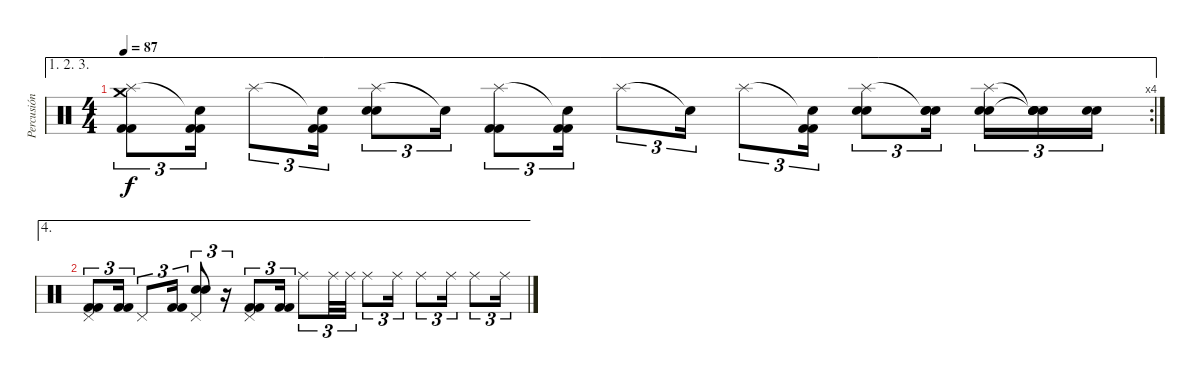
\track ("Percusión" "Percusión") {instrument percussion}
\staff {score}
\articulation defaults
\ae (1 2 3)
\rc 4
\ts (4 4)
\tempo 87
\clef neutral
\ks c
("Splash (hit)" "Crash medium (hit)" "Kick (hit) 2" "Kick (hit) 2").8{tu (3 2) dy f} ("Snare (hit)"{t} "Kick (hit) 2" "Kick (hit) 2").16{tu (3 2)} "Splash (hit)".8{tu (3 2)} ("Snare (hit)"{t} "Kick (hit) 2" "Kick (hit) 2").16{tu (3 2)} ("Splash (hit)" "Electric Snare (hit)" "Electric Snare (hit)").8{tu (3 2)} "Snare (hit)"{t}.16{tu (3 2)} ("Splash (hit)" "Kick (hit) 2" "Kick (hit) 2").8{tu (3 2)} ("Snare (hit)"{t} "Kick (hit) 2" "Kick (hit) 2").16{tu (3 2)} "Splash (hit)".8{tu (3 2)} "Snare (hit)"{t}.16{tu (3 2)} "Splash (hit)".8{tu (3 2)} ("Snare (hit)"{t} "Kick (hit) 2" "Kick (hit) 2").16{tu (3 2)} ("Splash (hit)" "Electric Snare (hit)" "Electric Snare (hit)").8{tu (3 2)} ("Snare (hit)"{t} "Electric Snare (hit)" "Electric Snare (hit)").16{tu (3 2)} ("Splash (hit)" "Electric Snare (hit)" "Electric Snare (hit)").16{tu (3 2)} ("Snare (hit)"{t} "Snare (hit)"{t} "Electric Snare (hit)" "Electric Snare (hit)").16{tu (3 2)} ("Electric Snare (hit)" "Electric Snare (hit)").16{tu (3 2)} |
\ae 4
("Pedal Hi-Hat (hit)" "Kick (hit) 2" "Kick (hit) 2").8{tu (3 2)} ("Kick (hit) 2" "Kick (hit) 2").16{tu (3 2)} "Pedal Hi-Hat (hit)".8{tu (3 2)} ("Kick (hit) 2" "Kick (hit) 2").16{tu (3 2)} ("Pedal Hi-Hat (hit)" "Electric Snare (hit)" "Electric Snare (hit)").8{tu (3 2)} r.16{tu (3 2)} ("Pedal Hi-Hat (hit)" "Kick (hit) 2" "Kick (hit) 2").8{tu (3 2)} ("Kick (hit) 2" "Kick (hit) 2").16{tu (3 2)} "Ride (middle)".8{tu (3 2)} "Ride (middle)".32{tu (3 2)} "Ride (middle)".32{tu (3 2)} "Ride (middle)".8{tu (3 2)} "Ride (middle)".16{tu (3 2)} "Ride (middle)".8{tu (3 2)} "Ride (middle)".16{tu (3 2)} "Ride (middle)".8{tu (3 2)} "Ride (middle)".16{tu (3 2)}
